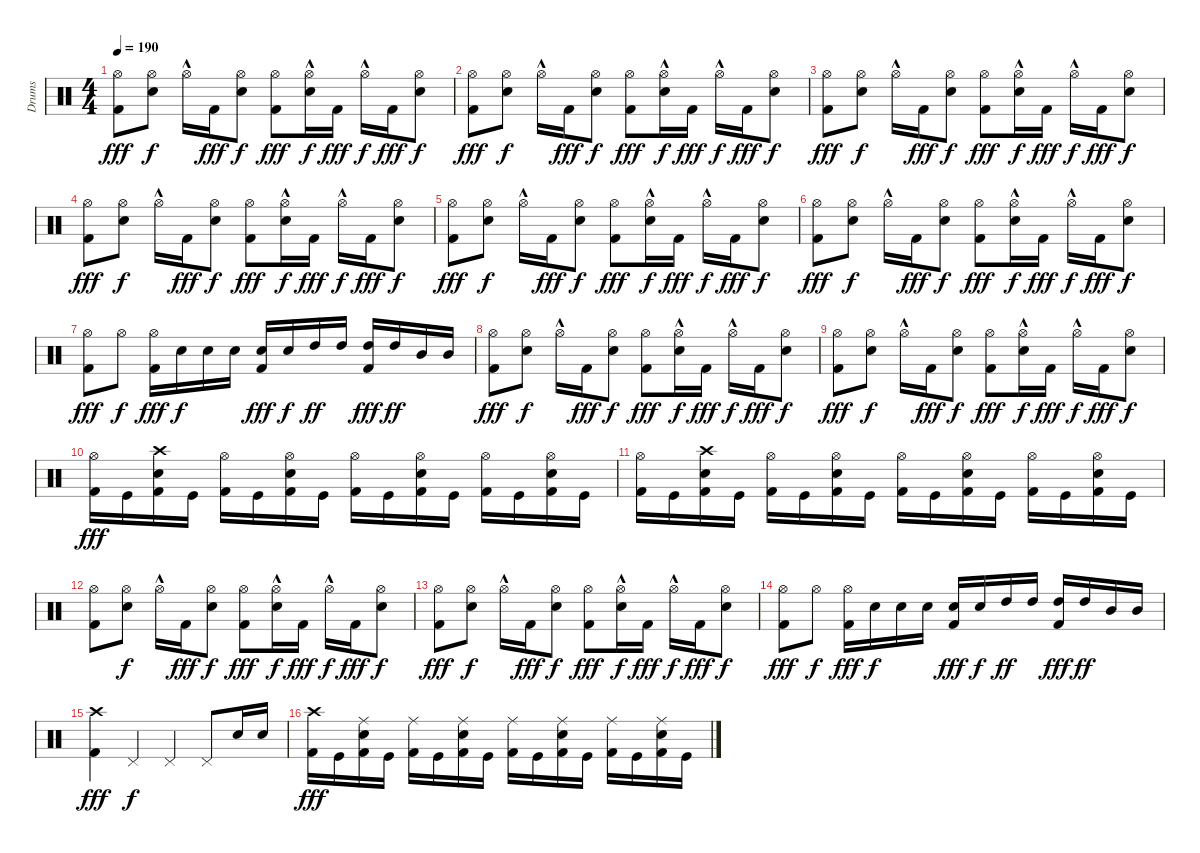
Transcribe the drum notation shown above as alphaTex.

\track ("Drums" "Drums") {instrument percussion}
\staff {score}
\articulation defaults
\ts (4 4)
\tempo 190
\clef neutral
\ks c
("Hi-Hat (open)" "Kick (hit) 2").8{dy fff} ("Hi-Hat (open)" "Electric Snare (hit)").8{dy f} "Hi-Hat (open)"{hac}.16 "Kick (hit) 2".16{dy fff} ("Hi-Hat (open)" "Electric Snare (hit)").8{dy f} ("Hi-Hat (open)" "Kick (hit) 2").8{dy fff} ("Hi-Hat (open)"{hac} "Electric Snare (hit)").16{dy f} "Kick (hit) 2".16{dy fff} "Hi-Hat (open)"{hac}.16{dy f} "Kick (hit) 2".16{dy fff} ("Hi-Hat (open)" "Electric Snare (hit)").8{dy f} |
("Hi-Hat (open)" "Kick (hit) 2").8{dy fff} ("Hi-Hat (open)" "Electric Snare (hit)").8{dy f} "Hi-Hat (open)"{hac}.16 "Kick (hit) 2".16{dy fff} ("Hi-Hat (open)" "Electric Snare (hit)").8{dy f} ("Hi-Hat (open)" "Kick (hit) 2").8{dy fff} ("Hi-Hat (open)"{hac} "Electric Snare (hit)").16{dy f} "Kick (hit) 2".16{dy fff} "Hi-Hat (open)"{hac}.16{dy f} "Kick (hit) 2".16{dy fff} ("Hi-Hat (open)" "Electric Snare (hit)").8{dy f} |
("Hi-Hat (open)" "Kick (hit) 2").8{dy fff} ("Hi-Hat (open)" "Electric Snare (hit)").8{dy f} "Hi-Hat (open)"{hac}.16 "Kick (hit) 2".16{dy fff} ("Hi-Hat (open)" "Electric Snare (hit)").8{dy f} ("Hi-Hat (open)" "Kick (hit) 2").8{dy fff} ("Hi-Hat (open)"{hac} "Electric Snare (hit)").16{dy f} "Kick (hit) 2".16{dy fff} "Hi-Hat (open)"{hac}.16{dy f} "Kick (hit) 2".16{dy fff} ("Hi-Hat (open)" "Electric Snare (hit)").8{dy f} |
("Hi-Hat (open)" "Kick (hit) 2").8{dy fff} ("Hi-Hat (open)" "Electric Snare (hit)").8{dy f} "Hi-Hat (open)"{hac}.16 "Kick (hit) 2".16{dy fff} ("Hi-Hat (open)" "Electric Snare (hit)").8{dy f} ("Hi-Hat (open)" "Kick (hit) 2").8{dy fff} ("Hi-Hat (open)"{hac} "Electric Snare (hit)").16{dy f} "Kick (hit) 2".16{dy fff} "Hi-Hat (open)"{hac}.16{dy f} "Kick (hit) 2".16{dy fff} ("Hi-Hat (open)" "Electric Snare (hit)").8{dy f} |
("Hi-Hat (open)" "Kick (hit) 2").8{dy fff} ("Hi-Hat (open)" "Electric Snare (hit)").8{dy f} "Hi-Hat (open)"{hac}.16 "Kick (hit) 2".16{dy fff} ("Hi-Hat (open)" "Electric Snare (hit)").8{dy f} ("Hi-Hat (open)" "Kick (hit) 2").8{dy fff} ("Hi-Hat (open)"{hac} "Electric Snare (hit)").16{dy f} "Kick (hit) 2".16{dy fff} "Hi-Hat (open)"{hac}.16{dy f} "Kick (hit) 2".16{dy fff} ("Hi-Hat (open)" "Electric Snare (hit)").8{dy f} |
("Hi-Hat (open)" "Kick (hit) 2").8{dy fff} ("Hi-Hat (open)" "Electric Snare (hit)").8{dy f} "Hi-Hat (open)"{hac}.16 "Kick (hit) 2".16{dy fff} ("Hi-Hat (open)" "Electric Snare (hit)").8{dy f} ("Hi-Hat (open)" "Kick (hit) 2").8{dy fff} ("Hi-Hat (open)"{hac} "Electric Snare (hit)").16{dy f} "Kick (hit) 2".16{dy fff} "Hi-Hat (open)"{hac}.16{dy f} "Kick (hit) 2".16{dy fff} ("Hi-Hat (open)" "Electric Snare (hit)").8{dy f} |
("Hi-Hat (open)" "Kick (hit) 2").8{dy fff} "Hi-Hat (open)".8{dy f} ("Hi-Hat (open)" "Kick (hit) 2").16{dy fff} "Electric Snare (hit)".16{dy f} "Electric Snare (hit)".16 "Electric Snare (hit)".16 ("Electric Snare (hit)" "Kick (hit) 2").16{dy fff} "Electric Snare (hit)".16{dy f} "High Tom (hit)".16{dy ff} "High Tom (hit)".16 ("High Tom (hit)" "Kick (hit) 2").16{dy fff} "High Tom (hit)".16{dy ff} "Mid Tom (hit)".16 "Mid Tom (hit)".16 |
("Hi-Hat (open)" "Kick (hit) 2").8{dy fff} ("Hi-Hat (open)" "Electric Snare (hit)").8{dy f} "Hi-Hat (open)"{hac}.16 "Kick (hit) 2".16{dy fff} ("Hi-Hat (open)" "Electric Snare (hit)").8{dy f} ("Hi-Hat (open)" "Kick (hit) 2").8{dy fff} ("Hi-Hat (open)"{hac} "Electric Snare (hit)").16{dy f} "Kick (hit) 2".16{dy fff} "Hi-Hat (open)"{hac}.16{dy f} "Kick (hit) 2".16{dy fff} ("Hi-Hat (open)" "Electric Snare (hit)").8{dy f} |
("Hi-Hat (open)" "Kick (hit) 2").8{dy fff} ("Hi-Hat (open)" "Electric Snare (hit)").8{dy f} "Hi-Hat (open)"{hac}.16 "Kick (hit) 2".16{dy fff} ("Hi-Hat (open)" "Electric Snare (hit)").8{dy f} ("Hi-Hat (open)" "Kick (hit) 2").8{dy fff} ("Hi-Hat (open)"{hac} "Electric Snare (hit)").16{dy f} "Kick (hit) 2".16{dy fff} "Hi-Hat (open)"{hac}.16{dy f} "Kick (hit) 2".16{dy fff} ("Hi-Hat (open)" "Electric Snare (hit)").8{dy f} |
("Hi-Hat (open)" "Kick (hit) 2").16{dy fff} "Kick (hit)".16 ("Crash high (hit)" "Electric Snare (hit)" "Kick (hit) 2").16 "Kick (hit)".16 ("Hi-Hat (open)" "Kick (hit) 2").16 "Kick (hit)".16 ("Hi-Hat (open)" "Electric Snare (hit)" "Kick (hit) 2").16 "Kick (hit)".16 ("Hi-Hat (open)" "Kick (hit) 2").16 "Kick (hit)".16 ("Hi-Hat (open)" "Electric Snare (hit)" "Kick (hit) 2").16 "Kick (hit)".16 ("Hi-Hat (open)" "Kick (hit) 2").16 "Kick (hit)".16 ("Hi-Hat (open)" "Electric Snare (hit)" "Kick (hit) 2").16 "Kick (hit)".16 |
("Hi-Hat (open)" "Kick (hit) 2").16 "Kick (hit)".16 ("Crash high (hit)" "Electric Snare (hit)" "Kick (hit) 2").16 "Kick (hit)".16 ("Hi-Hat (open)" "Kick (hit) 2").16 "Kick (hit)".16 ("Hi-Hat (open)" "Electric Snare (hit)" "Kick (hit) 2").16 "Kick (hit)".16 ("Hi-Hat (open)" "Kick (hit) 2").16 "Kick (hit)".16 ("Hi-Hat (open)" "Electric Snare (hit)" "Kick (hit) 2").16 "Kick (hit)".16 ("Hi-Hat (open)" "Kick (hit) 2").16 "Kick (hit)".16 ("Hi-Hat (open)" "Electric Snare (hit)" "Kick (hit) 2").16 "Kick (hit)".16 |
("Hi-Hat (open)" "Kick (hit) 2").8 ("Hi-Hat (open)" "Electric Snare (hit)").8{dy f} "Hi-Hat (open)"{hac}.16 "Kick (hit) 2".16{dy fff} ("Hi-Hat (open)" "Electric Snare (hit)").8{dy f} ("Hi-Hat (open)" "Kick (hit) 2").8{dy fff} ("Hi-Hat (open)"{hac} "Electric Snare (hit)").16{dy f} "Kick (hit) 2".16{dy fff} "Hi-Hat (open)"{hac}.16{dy f} "Kick (hit) 2".16{dy fff} ("Hi-Hat (open)" "Electric Snare (hit)").8{dy f} |
("Hi-Hat (open)" "Kick (hit) 2").8{dy fff} ("Hi-Hat (open)" "Electric Snare (hit)").8{dy f} "Hi-Hat (open)"{hac}.16 "Kick (hit) 2".16{dy fff} ("Hi-Hat (open)" "Electric Snare (hit)").8{dy f} ("Hi-Hat (open)" "Kick (hit) 2").8{dy fff} ("Hi-Hat (open)"{hac} "Electric Snare (hit)").16{dy f} "Kick (hit) 2".16{dy fff} "Hi-Hat (open)"{hac}.16{dy f} "Kick (hit) 2".16{dy fff} ("Hi-Hat (open)" "Electric Snare (hit)").8{dy f} |
("Hi-Hat (open)" "Kick (hit) 2").8{dy fff} "Hi-Hat (open)".8{dy f} ("Hi-Hat (open)" "Kick (hit) 2").16{dy fff} "Electric Snare (hit)".16{dy f} "Electric Snare (hit)".16 "Electric Snare (hit)".16 ("Electric Snare (hit)" "Kick (hit) 2").16{dy fff} "Electric Snare (hit)".16{dy f} "High Tom (hit)".16{dy ff} "High Tom (hit)".16 ("High Tom (hit)" "Kick (hit) 2").16{dy fff} "High Tom (hit)".16{dy ff} "Mid Tom (hit)".16 "Mid Tom (hit)".16 |
("Crash high (hit)" "Kick (hit) 2").4{dy fff} "Pedal Hi-Hat (hit)".4{dy f} "Pedal Hi-Hat (hit)".4 "Pedal Hi-Hat (hit)".8 "Electric Snare (hit)".16 "Electric Snare (hit)".16 |
("Crash high (hit)" "Kick (hit) 2").16{dy fff} "Kick (hit)".16 ("Ride (middle)" "Electric Snare (hit)" "Kick (hit) 2").16 "Kick (hit)".16 ("Ride (middle)" "Kick (hit) 2").16 "Kick (hit)".16 ("Ride (middle)" "Electric Snare (hit)" "Kick (hit) 2").16 "Kick (hit)".16 ("Ride (middle)" "Kick (hit) 2").16 "Kick (hit)".16 ("Ride (middle)" "Electric Snare (hit)" "Kick (hit) 2").16 "Kick (hit)".16 ("Ride (middle)" "Kick (hit) 2").16 "Kick (hit)".16 ("Ride (middle)" "Electric Snare (hit)" "Kick (hit) 2").16 "Kick (hit)".16
